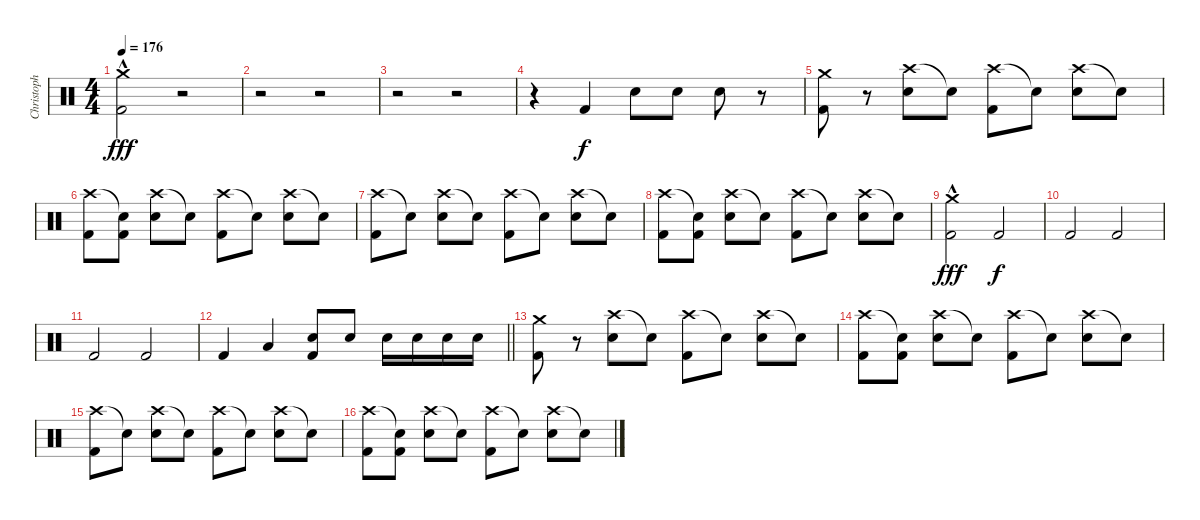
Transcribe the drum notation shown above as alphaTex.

\track ("Christoph" "Christoph") {instrument percussion}
\staff {score}
\articulation defaults
\ts (4 4)
\tempo 176
\clef neutral
\ks c
("Crash medium (hit)"{hac} "Kick (hit) 2").2{dy fff} r.2 |
r.2 r.2 |
r.2 r.2 |
r.4 "Kick (hit) 2".4{dy f} "Snare (hit) 2".8 "Snare (hit) 2".8 "Snare (hit) 2".8 r.8 |
("Crash medium (hit)" "Kick (hit) 2").8 r.8 ("Crash high (hit)" "Snare (hit) 2").8 "Snare (hit)"{t}.8 ("Crash high (hit)" "Kick (hit) 2").8 "Snare (hit)"{t}.8 ("Crash high (hit)" "Snare (hit) 2").8 "Snare (hit)"{t}.8 |
("Crash high (hit)" "Kick (hit) 2").8 ("Snare (hit)"{t} "Kick (hit) 2").8 ("Crash high (hit)" "Snare (hit) 2").8 "Snare (hit)"{t}.8 ("Crash high (hit)" "Kick (hit) 2").8 "Snare (hit)"{t}.8 ("Crash high (hit)" "Snare (hit) 2").8 "Snare (hit)"{t}.8 |
("Crash high (hit)" "Kick (hit) 2").8 "Snare (hit)"{t}.8 ("Crash high (hit)" "Snare (hit) 2").8 "Snare (hit)"{t}.8 ("Crash high (hit)" "Kick (hit) 2").8 "Snare (hit)"{t}.8 ("Crash high (hit)" "Snare (hit) 2").8 "Snare (hit)"{t}.8 |
("Crash high (hit)" "Kick (hit) 2").8 ("Snare (hit)"{t} "Kick (hit) 2").8 ("Crash high (hit)" "Snare (hit) 2").8 "Snare (hit)"{t}.8 ("Crash high (hit)" "Kick (hit) 2").8 "Snare (hit)"{t}.8 ("Crash high (hit)" "Snare (hit) 2").8 "Snare (hit)"{t}.8 |
("Crash medium (hit)"{hac} "Kick (hit) 2").2{dy fff} "Kick (hit) 2".2{dy f} |
"Kick (hit) 2".2 "Kick (hit) 2".2 |
"Kick (hit) 2".2 "Kick (hit) 2".2 |
\barLineRight lightlight "Kick (hit) 2".4 "Low Floor Tom (hit)".4
("Snare (hit) 2" "Kick (hit) 2").8 "Snare (hit) 2".8 "Snare (hit) 2".16 "Snare (hit) 2".16 "Snare (hit) 2".16 "Snare (hit) 2".16 |
("Crash medium (hit)" "Kick (hit) 2").8 r.8 ("Crash high (hit)" "Snare (hit) 2").8 "Snare (hit)"{t}.8 ("Crash high (hit)" "Kick (hit) 2").8 "Snare (hit)"{t}.8 ("Crash high (hit)" "Snare (hit) 2").8 "Snare (hit)"{t}.8 |
("Crash high (hit)" "Kick (hit) 2").8 ("Snare (hit)"{t} "Kick (hit) 2").8 ("Crash high (hit)" "Snare (hit) 2").8 "Snare (hit)"{t}.8 ("Crash high (hit)" "Kick (hit) 2").8 "Snare (hit)"{t}.8 ("Crash high (hit)" "Snare (hit) 2").8 "Snare (hit)"{t}.8 |
("Crash high (hit)" "Kick (hit) 2").8 "Snare (hit)"{t}.8 ("Crash high (hit)" "Snare (hit) 2").8 "Snare (hit)"{t}.8 ("Crash high (hit)" "Kick (hit) 2").8 "Snare (hit)"{t}.8 ("Crash high (hit)" "Snare (hit) 2").8 "Snare (hit)"{t}.8 |
("Crash high (hit)" "Kick (hit) 2").8 ("Snare (hit)"{t} "Kick (hit) 2").8 ("Crash high (hit)" "Snare (hit) 2").8 "Snare (hit)"{t}.8 ("Crash high (hit)" "Kick (hit) 2").8 "Snare (hit)"{t}.8 ("Crash high (hit)" "Snare (hit) 2").8 "Snare (hit)"{t}.8
